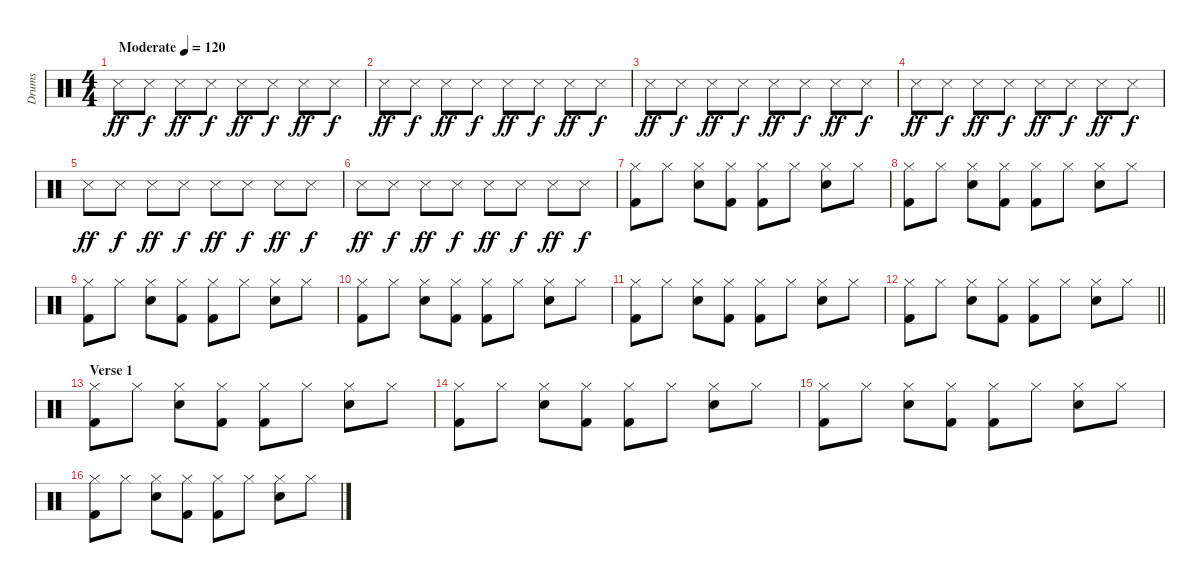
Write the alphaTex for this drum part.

\track ("Drums" "Drums") {instrument percussion}
\staff
\articulation defaults
\ts (4 4)
\tempo (120 "Moderate")
\clef neutral
\ks c "Metronome (hit)".8{dy ff} "Metronome (hit)".8{dy f} "Metronome (hit)".8{dy ff} "Metronome (hit)".8{dy f} "Metronome (hit)".8{dy ff} "Metronome (hit)".8{dy f} "Metronome (hit)".8{dy ff} "Metronome (hit)".8{dy f}
|
"Metronome (hit)".8{dy ff} "Metronome (hit)".8{dy f} "Metronome (hit)".8{dy ff} "Metronome (hit)".8{dy f} "Metronome (hit)".8{dy ff} "Metronome (hit)".8{dy f} "Metronome (hit)".8{dy ff} "Metronome (hit)".8{dy f} |
"Metronome (hit)".8{dy ff} "Metronome (hit)".8{dy f} "Metronome (hit)".8{dy ff} "Metronome (hit)".8{dy f} "Metronome (hit)".8{dy ff} "Metronome (hit)".8{dy f} "Metronome (hit)".8{dy ff} "Metronome (hit)".8{dy f} |
"Metronome (hit)".8{dy ff} "Metronome (hit)".8{dy f} "Metronome (hit)".8{dy ff} "Metronome (hit)".8{dy f} "Metronome (hit)".8{dy ff} "Metronome (hit)".8{dy f} "Metronome (hit)".8{dy ff} "Metronome (hit)".8{dy f} |
"Metronome (hit)".8{dy ff} "Metronome (hit)".8{dy f} "Metronome (hit)".8{dy ff} "Metronome (hit)".8{dy f} "Metronome (hit)".8{dy ff} "Metronome (hit)".8{dy f} "Metronome (hit)".8{dy ff} "Metronome (hit)".8{dy f} |
"Metronome (hit)".8{dy ff} "Metronome (hit)".8{dy f} "Metronome (hit)".8{dy ff} "Metronome (hit)".8{dy f} "Metronome (hit)".8{dy ff} "Metronome (hit)".8{dy f} "Metronome (hit)".8{dy ff} "Metronome (hit)".8{dy f} |
("Hi-Hat (closed)" "Kick (hit) 2").8 "Hi-Hat (closed)".8 ("Hi-Hat (closed)" "Electric Snare (hit)").8 ("Hi-Hat (closed)" "Kick (hit) 2").8 ("Hi-Hat (closed)" "Kick (hit) 2").8 "Hi-Hat (closed)".8 ("Hi-Hat (closed)" "Electric Snare (hit)").8 "Hi-Hat (closed)".8 |
("Hi-Hat (closed)" "Kick (hit) 2").8 "Hi-Hat (closed)".8 ("Hi-Hat (closed)" "Electric Snare (hit)").8 ("Hi-Hat (closed)" "Kick (hit) 2").8 ("Hi-Hat (closed)" "Kick (hit) 2").8 "Hi-Hat (closed)".8 ("Hi-Hat (closed)" "Electric Snare (hit)").8 "Hi-Hat (closed)".8 |
("Hi-Hat (closed)" "Kick (hit) 2").8 "Hi-Hat (closed)".8 ("Hi-Hat (closed)" "Electric Snare (hit)").8 ("Hi-Hat (closed)" "Kick (hit) 2").8 ("Hi-Hat (closed)" "Kick (hit) 2").8 "Hi-Hat (closed)".8 ("Hi-Hat (closed)" "Electric Snare (hit)").8 "Hi-Hat (closed)".8 |
("Hi-Hat (closed)" "Kick (hit) 2").8 "Hi-Hat (closed)".8 ("Hi-Hat (closed)" "Electric Snare (hit)").8 ("Hi-Hat (closed)" "Kick (hit) 2").8 ("Hi-Hat (closed)" "Kick (hit) 2").8 "Hi-Hat (closed)".8 ("Hi-Hat (closed)" "Electric Snare (hit)").8 "Hi-Hat (closed)".8 |
("Hi-Hat (closed)" "Kick (hit) 2").8 "Hi-Hat (closed)".8 ("Hi-Hat (closed)" "Electric Snare (hit)").8 ("Hi-Hat (closed)" "Kick (hit) 2").8 ("Hi-Hat (closed)" "Kick (hit) 2").8 "Hi-Hat (closed)".8 ("Hi-Hat (closed)" "Electric Snare (hit)").8 "Hi-Hat (closed)".8 |
\barLineRight lightlight
("Hi-Hat (closed)" "Kick (hit) 2").8 "Hi-Hat (closed)".8 ("Hi-Hat (closed)" "Electric Snare (hit)").8 ("Hi-Hat (closed)" "Kick (hit) 2").8 ("Hi-Hat (closed)" "Kick (hit) 2").8 "Hi-Hat (closed)".8 ("Hi-Hat (closed)" "Electric Snare (hit)").8 "Hi-Hat (closed)".8 |
\section ("" "Verse 1")
("Hi-Hat (closed)" "Kick (hit) 2").8 "Hi-Hat (closed)".8 ("Hi-Hat (closed)" "Electric Snare (hit)").8 ("Hi-Hat (closed)" "Kick (hit) 2").8 ("Hi-Hat (closed)" "Kick (hit) 2").8 "Hi-Hat (closed)".8 ("Hi-Hat (closed)" "Electric Snare (hit)").8 "Hi-Hat (closed)".8 |
("Hi-Hat (closed)" "Kick (hit) 2").8 "Hi-Hat (closed)".8 ("Hi-Hat (closed)" "Electric Snare (hit)").8 ("Hi-Hat (closed)" "Kick (hit) 2").8 ("Hi-Hat (closed)" "Kick (hit) 2").8 "Hi-Hat (closed)".8 ("Hi-Hat (closed)" "Electric Snare (hit)").8 "Hi-Hat (closed)".8 |
("Hi-Hat (closed)" "Kick (hit) 2").8 "Hi-Hat (closed)".8 ("Hi-Hat (closed)" "Electric Snare (hit)").8 ("Hi-Hat (closed)" "Kick (hit) 2").8 ("Hi-Hat (closed)" "Kick (hit) 2").8 "Hi-Hat (closed)".8 ("Hi-Hat (closed)" "Electric Snare (hit)").8 "Hi-Hat (closed)".8 |
("Hi-Hat (closed)" "Kick (hit) 2").8 "Hi-Hat (closed)".8 ("Hi-Hat (closed)" "Electric Snare (hit)").8 ("Hi-Hat (closed)" "Kick (hit) 2").8 ("Hi-Hat (closed)" "Kick (hit) 2").8 "Hi-Hat (closed)".8 ("Hi-Hat (closed)" "Electric Snare (hit)").8 "Hi-Hat (closed)".8
